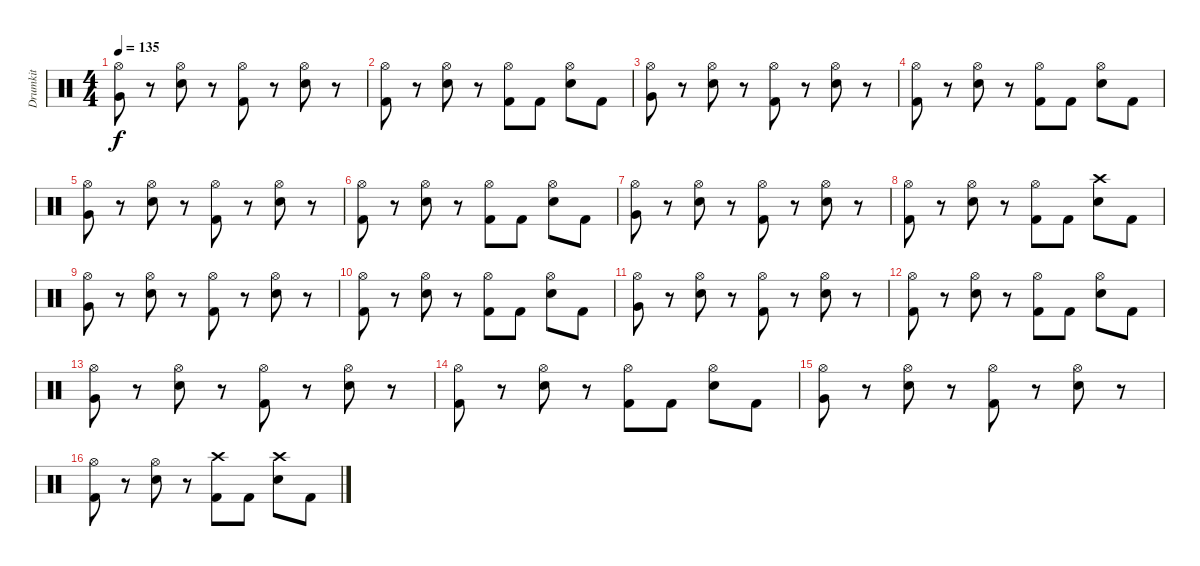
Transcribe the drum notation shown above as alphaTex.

\track ("Drumkit" "Drumkit") {instrument percussion}
\staff {score}
\articulation defaults
\ts (4 4)
\tempo 135
\clef neutral
\ks c
("Hi-Hat (open)" "Very Low Tom (hit)").8{dy f} r.8 ("Hi-Hat (open)" "Snare (hit) 2").8 r.8 ("Hi-Hat (open)" "Kick (hit) 2").8 r.8 ("Hi-Hat (open)" "Snare (hit) 2").8 r.8 |
("Hi-Hat (open)" "Kick (hit) 2").8 r.8 ("Hi-Hat (open)" "Snare (hit) 2").8 r.8 ("Hi-Hat (open)" "Kick (hit) 2").8 "Kick (hit) 2".8 ("Hi-Hat (open)" "Snare (hit) 2").8 "Kick (hit) 2".8 |
("Hi-Hat (open)" "Very Low Tom (hit)").8 r.8 ("Hi-Hat (open)" "Snare (hit) 2").8 r.8 ("Hi-Hat (open)" "Kick (hit) 2").8 r.8 ("Hi-Hat (open)" "Snare (hit) 2").8 r.8 |
("Hi-Hat (open)" "Kick (hit) 2").8 r.8 ("Hi-Hat (open)" "Snare (hit) 2").8 r.8 ("Hi-Hat (open)" "Kick (hit) 2").8 "Kick (hit) 2".8 ("Hi-Hat (open)" "Snare (hit) 2").8 "Kick (hit) 2".8 |
("Hi-Hat (open)" "Very Low Tom (hit)").8 r.8 ("Hi-Hat (open)" "Snare (hit) 2").8 r.8 ("Hi-Hat (open)" "Kick (hit) 2").8 r.8 ("Hi-Hat (open)" "Snare (hit) 2").8 r.8 |
("Hi-Hat (open)" "Kick (hit) 2").8 r.8 ("Hi-Hat (open)" "Snare (hit) 2").8 r.8 ("Hi-Hat (open)" "Kick (hit) 2").8 "Kick (hit) 2".8 ("Hi-Hat (open)" "Snare (hit) 2").8 "Kick (hit) 2".8 |
("Hi-Hat (open)" "Very Low Tom (hit)").8 r.8 ("Hi-Hat (open)" "Snare (hit) 2").8 r.8 ("Hi-Hat (open)" "Kick (hit) 2").8 r.8 ("Hi-Hat (open)" "Snare (hit) 2").8 r.8 |
("Hi-Hat (open)" "Kick (hit) 2").8 r.8 ("Hi-Hat (open)" "Snare (hit) 2").8 r.8 ("Hi-Hat (open)" "Kick (hit) 2").8 "Kick (hit) 2".8 ("Crash high (hit)" "Snare (hit) 2").8 "Kick (hit) 2".8 |
("Hi-Hat (open)" "Very Low Tom (hit)").8 r.8 ("Hi-Hat (open)" "Snare (hit) 2").8 r.8 ("Hi-Hat (open)" "Kick (hit) 2").8 r.8 ("Hi-Hat (open)" "Snare (hit) 2").8 r.8 |
("Hi-Hat (open)" "Kick (hit) 2").8 r.8 ("Hi-Hat (open)" "Snare (hit) 2").8 r.8 ("Hi-Hat (open)" "Kick (hit) 2").8 "Kick (hit) 2".8 ("Hi-Hat (open)" "Snare (hit) 2").8 "Kick (hit) 2".8 |
("Hi-Hat (open)" "Very Low Tom (hit)").8 r.8 ("Hi-Hat (open)" "Snare (hit) 2").8 r.8 ("Hi-Hat (open)" "Kick (hit) 2").8 r.8 ("Hi-Hat (open)" "Snare (hit) 2").8 r.8 |
("Hi-Hat (open)" "Kick (hit) 2").8 r.8 ("Hi-Hat (open)" "Snare (hit) 2").8 r.8 ("Hi-Hat (open)" "Kick (hit) 2").8 "Kick (hit) 2".8 ("Hi-Hat (open)" "Snare (hit) 2").8 "Kick (hit) 2".8 |
("Hi-Hat (open)" "Very Low Tom (hit)").8 r.8 ("Hi-Hat (open)" "Snare (hit) 2").8 r.8 ("Hi-Hat (open)" "Kick (hit) 2").8 r.8 ("Hi-Hat (open)" "Snare (hit) 2").8 r.8 |
("Hi-Hat (open)" "Kick (hit) 2").8 r.8 ("Hi-Hat (open)" "Snare (hit) 2").8 r.8 ("Hi-Hat (open)" "Kick (hit) 2").8 "Kick (hit) 2".8 ("Hi-Hat (open)" "Snare (hit) 2").8 "Kick (hit) 2".8 |
("Hi-Hat (open)" "Very Low Tom (hit)").8 r.8 ("Hi-Hat (open)" "Snare (hit) 2").8 r.8 ("Hi-Hat (open)" "Kick (hit) 2").8 r.8 ("Hi-Hat (open)" "Snare (hit) 2").8 r.8 |
("Hi-Hat (open)" "Kick (hit) 2").8 r.8 ("Hi-Hat (open)" "Snare (hit) 2").8 r.8 ("Crash high (hit)" "Kick (hit) 2").8 "Kick (hit) 2".8 ("Crash high (hit)" "Snare (hit) 2").8 "Kick (hit) 2".8
